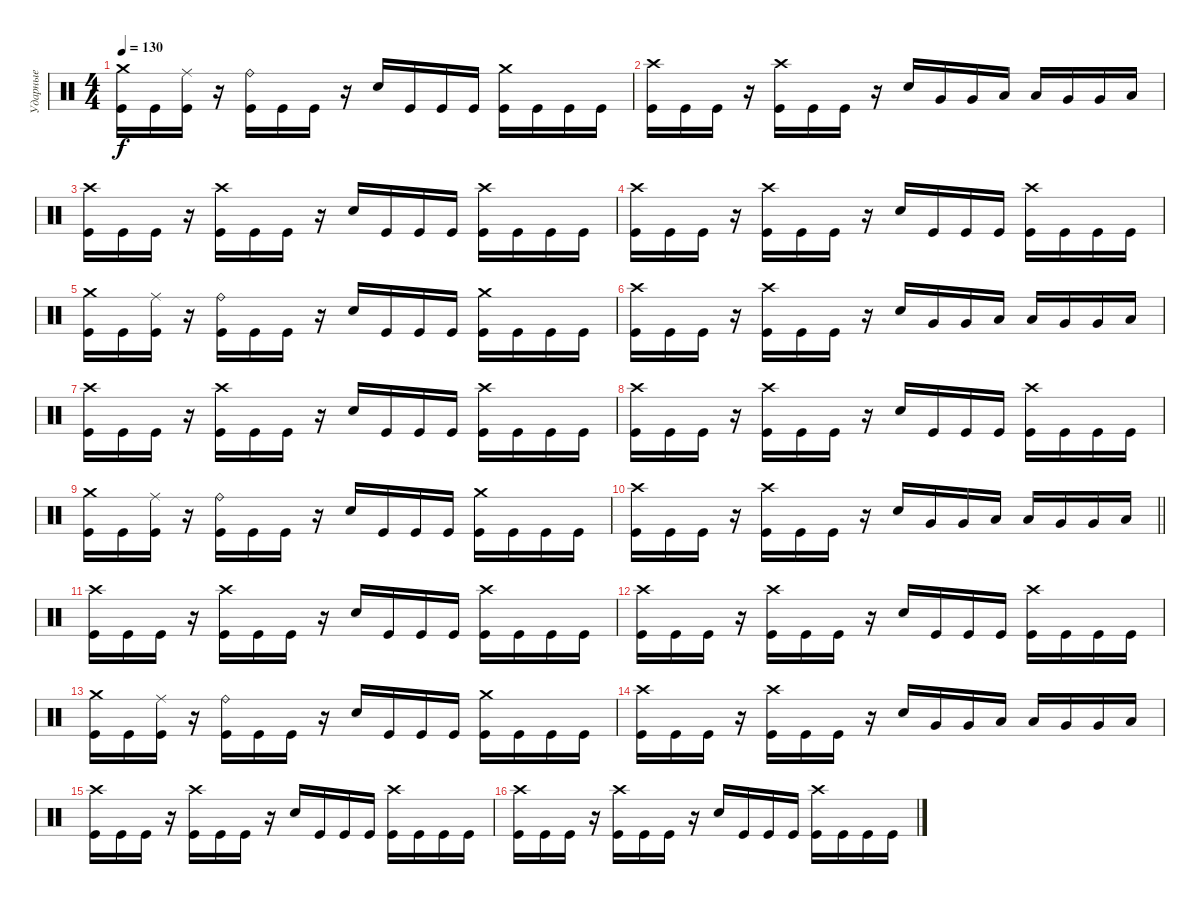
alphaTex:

\track ("Ударные" "Ударные") {instrument percussion}
\staff {score}
\articulation defaults
\ts (4 4)
\tempo 130
\clef neutral
\ks c
("Crash medium (hit)" "Kick (hit)").16{dy f} "Kick (hit)".16 ("Ride (middle)" "Kick (hit)").16 r.16 ("Ride (bell)" "Kick (hit)").16 "Kick (hit)".16 "Kick (hit)".16 r.16 "Electric Snare (hit)".16 "Kick (hit)".16 "Kick (hit)".16 "Kick (hit)".16 ("Crash medium (hit)" "Kick (hit)").16 "Kick (hit)".16 "Kick (hit)".16 "Kick (hit)".16 |
("Crash high (hit)" "Kick (hit)").16 "Kick (hit)".16 "Kick (hit)".16 r.16 ("Crash high (hit)" "Kick (hit)").16 "Kick (hit)".16 "Kick (hit)".16 r.16 "Electric Snare (hit)".16 "Very Low Tom (hit)".16 "Very Low Tom (hit)".16 "Low Tom (hit)".16 "Low Tom (hit)".16 "Very Low Tom (hit)".16 "Very Low Tom (hit)".16 "Low Floor Tom (hit)".16 |
("Crash high (hit)" "Kick (hit)").16 "Kick (hit)".16 "Kick (hit)".16 r.16 ("Crash high (hit)" "Kick (hit)").16 "Kick (hit)".16 "Kick (hit)".16 r.16 "Electric Snare (hit)".16 "Kick (hit)".16 "Kick (hit)".16 "Kick (hit)".16 ("Crash high (hit)" "Kick (hit)").16 "Kick (hit)".16 "Kick (hit)".16 "Kick (hit)".16 |
("Crash high (hit)" "Kick (hit)").16 "Kick (hit)".16 "Kick (hit)".16 r.16 ("Crash high (hit)" "Kick (hit)").16 "Kick (hit)".16 "Kick (hit)".16 r.16 "Electric Snare (hit)".16 "Kick (hit)".16 "Kick (hit)".16 "Kick (hit)".16 ("Crash high (hit)" "Kick (hit)").16 "Kick (hit)".16 "Kick (hit)".16 "Kick (hit)".16 |
("Crash medium (hit)" "Kick (hit)").16 "Kick (hit)".16 ("Ride (middle)" "Kick (hit)").16 r.16 ("Ride (bell)" "Kick (hit)").16 "Kick (hit)".16 "Kick (hit)".16 r.16 "Electric Snare (hit)".16 "Kick (hit)".16 "Kick (hit)".16 "Kick (hit)".16 ("Crash medium (hit)" "Kick (hit)").16 "Kick (hit)".16 "Kick (hit)".16 "Kick (hit)".16 |
("Crash high (hit)" "Kick (hit)").16 "Kick (hit)".16 "Kick (hit)".16 r.16 ("Crash high (hit)" "Kick (hit)").16 "Kick (hit)".16 "Kick (hit)".16 r.16 "Electric Snare (hit)".16 "Very Low Tom (hit)".16 "Very Low Tom (hit)".16 "Low Tom (hit)".16 "Low Tom (hit)".16 "Very Low Tom (hit)".16 "Very Low Tom (hit)".16 "Low Floor Tom (hit)".16 |
("Crash high (hit)" "Kick (hit)").16 "Kick (hit)".16 "Kick (hit)".16 r.16 ("Crash high (hit)" "Kick (hit)").16 "Kick (hit)".16 "Kick (hit)".16 r.16 "Electric Snare (hit)".16 "Kick (hit)".16 "Kick (hit)".16 "Kick (hit)".16 ("Crash high (hit)" "Kick (hit)").16 "Kick (hit)".16 "Kick (hit)".16 "Kick (hit)".16 |
("Crash high (hit)" "Kick (hit)").16 "Kick (hit)".16 "Kick (hit)".16 r.16 ("Crash high (hit)" "Kick (hit)").16 "Kick (hit)".16 "Kick (hit)".16 r.16 "Electric Snare (hit)".16 "Kick (hit)".16 "Kick (hit)".16 "Kick (hit)".16 ("Crash high (hit)" "Kick (hit)").16 "Kick (hit)".16 "Kick (hit)".16 "Kick (hit)".16 |
("Crash medium (hit)" "Kick (hit)").16 "Kick (hit)".16 ("Ride (middle)" "Kick (hit)").16 r.16 ("Ride (bell)" "Kick (hit)").16 "Kick (hit)".16 "Kick (hit)".16 r.16 "Electric Snare (hit)".16 "Kick (hit)".16 "Kick (hit)".16 "Kick (hit)".16 ("Crash medium (hit)" "Kick (hit)").16 "Kick (hit)".16 "Kick (hit)".16 "Kick (hit)".16 |
\barLineRight lightlight
("Crash high (hit)" "Kick (hit)").16 "Kick (hit)".16 "Kick (hit)".16 r.16 ("Crash high (hit)" "Kick (hit)").16 "Kick (hit)".16 "Kick (hit)".16 r.16 "Electric Snare (hit)".16 "Very Low Tom (hit)".16 "Very Low Tom (hit)".16 "Low Tom (hit)".16 "Low Tom (hit)".16 "Very Low Tom (hit)".16 "Very Low Tom (hit)".16 "Low Floor Tom (hit)".16 |
\section ("" " ")
("Crash high (hit)" "Kick (hit)").16 "Kick (hit)".16 "Kick (hit)".16 r.16 ("Crash high (hit)" "Kick (hit)").16 "Kick (hit)".16 "Kick (hit)".16 r.16 "Electric Snare (hit)".16 "Kick (hit)".16 "Kick (hit)".16 "Kick (hit)".16 ("Crash high (hit)" "Kick (hit)").16 "Kick (hit)".16 "Kick (hit)".16 "Kick (hit)".16 |
("Crash high (hit)" "Kick (hit)").16 "Kick (hit)".16 "Kick (hit)".16 r.16 ("Crash high (hit)" "Kick (hit)").16 "Kick (hit)".16 "Kick (hit)".16 r.16 "Electric Snare (hit)".16 "Kick (hit)".16 "Kick (hit)".16 "Kick (hit)".16 ("Crash high (hit)" "Kick (hit)").16 "Kick (hit)".16 "Kick (hit)".16 "Kick (hit)".16 |
("Crash medium (hit)" "Kick (hit)").16 "Kick (hit)".16 ("Ride (middle)" "Kick (hit)").16 r.16 ("Ride (bell)" "Kick (hit)").16 "Kick (hit)".16 "Kick (hit)".16 r.16 "Electric Snare (hit)".16 "Kick (hit)".16 "Kick (hit)".16 "Kick (hit)".16 ("Crash medium (hit)" "Kick (hit)").16 "Kick (hit)".16 "Kick (hit)".16 "Kick (hit)".16 |
("Crash high (hit)" "Kick (hit)").16 "Kick (hit)".16 "Kick (hit)".16 r.16 ("Crash high (hit)" "Kick (hit)").16 "Kick (hit)".16 "Kick (hit)".16 r.16 "Electric Snare (hit)".16 "Very Low Tom (hit)".16 "Very Low Tom (hit)".16 "Low Tom (hit)".16 "Low Tom (hit)".16 "Very Low Tom (hit)".16 "Very Low Tom (hit)".16 "Low Floor Tom (hit)".16 |
("Crash high (hit)" "Kick (hit)").16 "Kick (hit)".16 "Kick (hit)".16 r.16 ("Crash high (hit)" "Kick (hit)").16 "Kick (hit)".16 "Kick (hit)".16 r.16 "Electric Snare (hit)".16 "Kick (hit)".16 "Kick (hit)".16 "Kick (hit)".16 ("Crash high (hit)" "Kick (hit)").16 "Kick (hit)".16 "Kick (hit)".16 "Kick (hit)".16 |
("Crash high (hit)" "Kick (hit)").16 "Kick (hit)".16 "Kick (hit)".16 r.16 ("Crash high (hit)" "Kick (hit)").16 "Kick (hit)".16 "Kick (hit)".16 r.16 "Electric Snare (hit)".16 "Kick (hit)".16 "Kick (hit)".16 "Kick (hit)".16 ("Crash high (hit)" "Kick (hit)").16 "Kick (hit)".16 "Kick (hit)".16 "Kick (hit)".16
